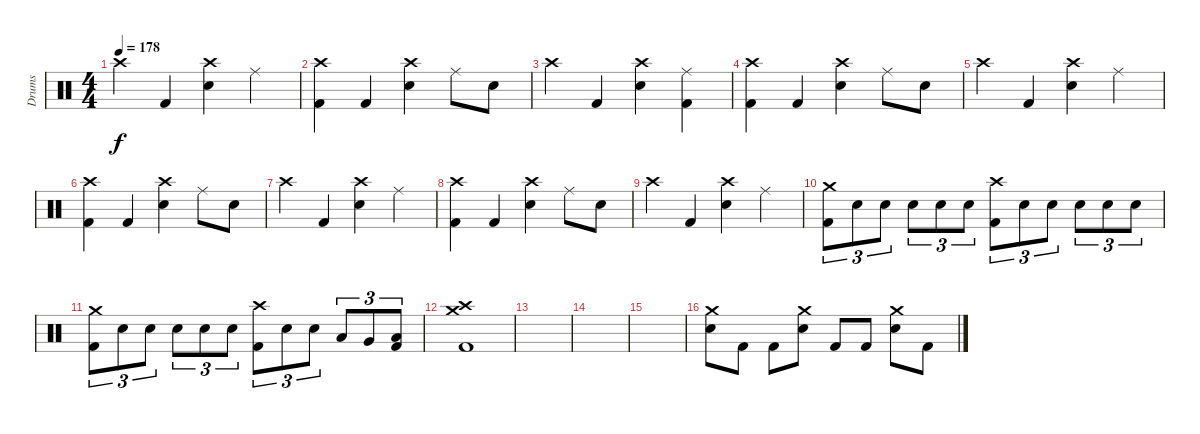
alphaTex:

\track ("Drums" "Drums") {instrument percussion}
\staff {score}
\articulation defaults
\ts (4 4)
\tempo 178
\clef neutral
\ks c "Crash high (hit)".4{dy f} "Kick (hit) 2".4
("Crash high (hit)" "Electric Snare (hit)").4 "Ride (middle)".4 |
("Crash high (hit)" "Kick (hit) 2").4 "Kick (hit) 2".4 ("Crash high (hit)" "Electric Snare (hit)").4 "Ride (middle)".8 "Electric Snare (hit)".8 |
"Crash high (hit)".4 "Kick (hit) 2".4 ("Crash high (hit)" "Electric Snare (hit)").4 ("Ride (middle)" "Kick (hit) 2").4 |
("Crash high (hit)" "Kick (hit) 2").4 "Kick (hit) 2".4 ("Crash high (hit)" "Electric Snare (hit)").4 "Ride (middle)".8 "Electric Snare (hit)".8 |
"Crash high (hit)".4 "Kick (hit) 2".4 ("Crash high (hit)" "Electric Snare (hit)").4 "Ride (middle)".4 |
("Crash high (hit)" "Kick (hit) 2").4 "Kick (hit) 2".4 ("Crash high (hit)" "Electric Snare (hit)").4 "Ride (middle)".8 "Electric Snare (hit)".8 |
"Crash high (hit)".4 "Kick (hit) 2".4 ("Crash high (hit)" "Electric Snare (hit)").4 "Ride (middle)".4 |
("Crash high (hit)" "Kick (hit) 2").4 "Kick (hit) 2".4 ("Crash high (hit)" "Electric Snare (hit)").4 "Ride (middle)".8 "Electric Snare (hit)".8 |
"Crash high (hit)".4 "Kick (hit) 2".4 ("Crash high (hit)" "Electric Snare (hit)").4 "Ride (middle)".4 |
("Crash medium (hit)" "Kick (hit) 2").8{tu (3 2)} "Electric Snare (hit)".8{tu (3 2)} "Electric Snare (hit)".8{tu (3 2)} "Electric Snare (hit)".8{tu (3 2)} "Electric Snare (hit)".8{tu (3 2)} "Electric Snare (hit)".8{tu (3 2)} ("Crash high (hit)" "Kick (hit) 2").8{tu (3 2)} "Electric Snare (hit)".8{tu (3 2)} "Electric Snare (hit)".8{tu (3 2)} "Electric Snare (hit)".8{tu (3 2)} "Electric Snare (hit)".8{tu (3 2)} "Electric Snare (hit)".8{tu (3 2)} |
("Crash medium (hit)" "Kick (hit) 2").8{tu (3 2)} "Electric Snare (hit)".8{tu (3 2)} "Electric Snare (hit)".8{tu (3 2)} "Electric Snare (hit)".8{tu (3 2)} "Electric Snare (hit)".8{tu (3 2)} "Electric Snare (hit)".8{tu (3 2)} ("Crash high (hit)" "Kick (hit) 2").8{tu (3 2)} "Electric Snare (hit)".8{tu (3 2)} "Electric Snare (hit)".8{tu (3 2)} "Low Tom (hit)".8{tu (3 2)} "Very Low Tom (hit)".8{tu (3 2)} ("Low Floor Tom (hit)" "Kick (hit) 2").8{tu (3 2)} |
("Crash high (hit)" "Crash medium (hit)" "Kick (hit) 2").1 |
|
|
|
("Crash medium (hit)" "Electric Snare (hit)").8 "Kick (hit) 2".8 "Kick (hit) 2".8 ("Crash medium (hit)" "Electric Snare (hit)").8 "Kick (hit) 2".8 "Kick (hit) 2".8 ("Crash medium (hit)" "Electric Snare (hit)").8 "Kick (hit) 2".8
